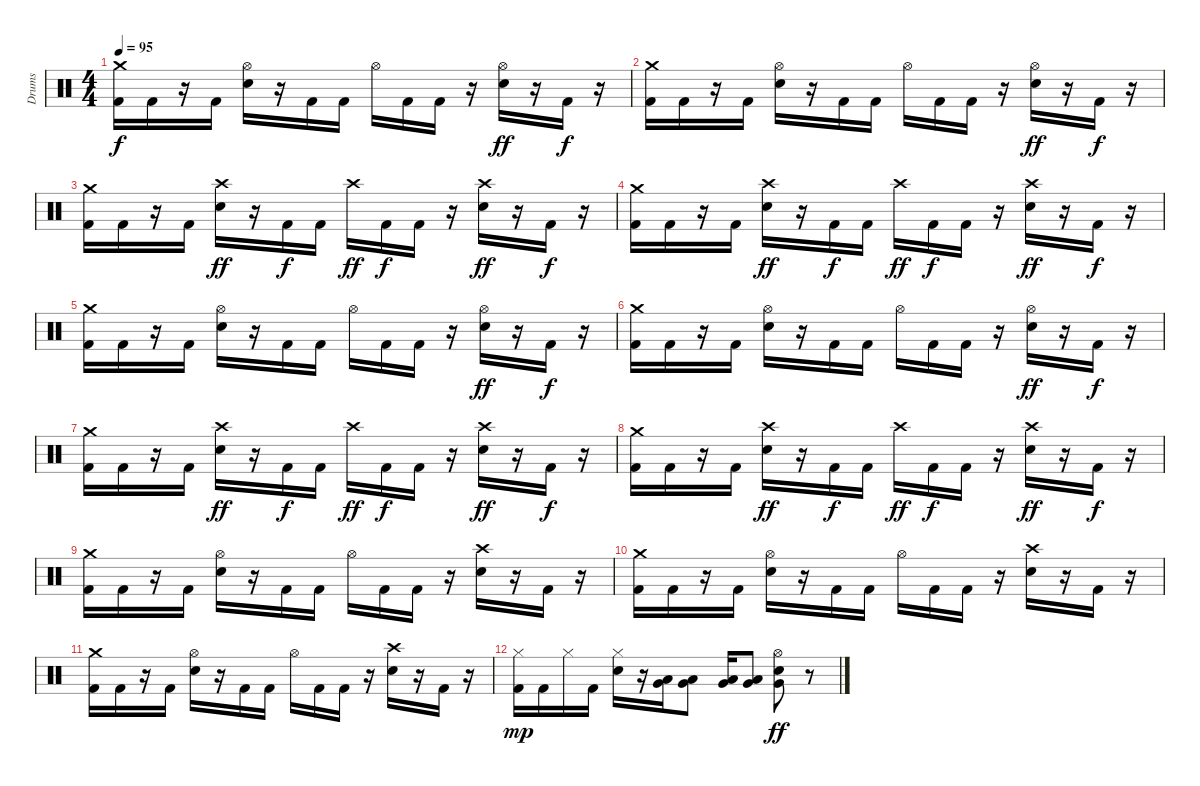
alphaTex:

\track ("Drums" "Drums") {instrument percussion}
\staff {score}
\articulation defaults
\ts (4 4)
\tempo 95
\clef neutral
\ks c
("Crash medium (hit)" "Kick (hit) 2").16{dy f} "Kick (hit) 2".16 r.16 "Kick (hit) 2".16 ("Hi-Hat (open)" "Electric Snare (hit)").16 r.16 "Kick (hit) 2".16 "Kick (hit) 2".16 "Hi-Hat (open)".16 "Kick (hit) 2".16 "Kick (hit) 2".16 r.16 ("Hi-Hat (open)" "Electric Snare (hit)").16{dy ff} r.16 "Kick (hit) 2".16{dy f} r.16 |
("Crash medium (hit)" "Kick (hit) 2").16 "Kick (hit) 2".16 r.16 "Kick (hit) 2".16 ("Hi-Hat (open)" "Electric Snare (hit)").16 r.16 "Kick (hit) 2".16 "Kick (hit) 2".16 "Hi-Hat (open)".16 "Kick (hit) 2".16 "Kick (hit) 2".16 r.16 ("Hi-Hat (open)" "Electric Snare (hit)").16{dy ff} r.16 "Kick (hit) 2".16{dy f} r.16 |
("Crash medium (hit)" "Kick (hit) 2").16 "Kick (hit) 2".16 r.16 "Kick (hit) 2".16 ("Crash high (hit)" "Electric Snare (hit)").16{dy ff} r.16 "Kick (hit) 2".16{dy f} "Kick (hit) 2".16 "Crash high (hit)".16{dy ff} "Kick (hit) 2".16{dy f} "Kick (hit) 2".16 r.16 ("Crash high (hit)" "Electric Snare (hit)").16{dy ff} r.16 "Kick (hit) 2".16{dy f} r.16 |
("Crash medium (hit)" "Kick (hit) 2").16 "Kick (hit) 2".16 r.16 "Kick (hit) 2".16 ("Crash high (hit)" "Electric Snare (hit)").16{dy ff} r.16 "Kick (hit) 2".16{dy f} "Kick (hit) 2".16 "Crash high (hit)".16{dy ff} "Kick (hit) 2".16{dy f} "Kick (hit) 2".16 r.16 ("Crash high (hit)" "Electric Snare (hit)").16{dy ff} r.16 "Kick (hit) 2".16{dy f} r.16 |
("Crash medium (hit)" "Kick (hit) 2").16 "Kick (hit) 2".16 r.16 "Kick (hit) 2".16 ("Hi-Hat (open)" "Electric Snare (hit)").16 r.16 "Kick (hit) 2".16 "Kick (hit) 2".16 "Hi-Hat (open)".16 "Kick (hit) 2".16 "Kick (hit) 2".16 r.16 ("Hi-Hat (open)" "Electric Snare (hit)").16{dy ff} r.16 "Kick (hit) 2".16{dy f} r.16 |
("Crash medium (hit)" "Kick (hit) 2").16 "Kick (hit) 2".16 r.16 "Kick (hit) 2".16 ("Hi-Hat (open)" "Electric Snare (hit)").16 r.16 "Kick (hit) 2".16 "Kick (hit) 2".16 "Hi-Hat (open)".16 "Kick (hit) 2".16 "Kick (hit) 2".16 r.16 ("Hi-Hat (open)" "Electric Snare (hit)").16{dy ff} r.16 "Kick (hit) 2".16{dy f} r.16 |
("Crash medium (hit)" "Kick (hit) 2").16 "Kick (hit) 2".16 r.16 "Kick (hit) 2".16 ("Crash high (hit)" "Electric Snare (hit)").16{dy ff} r.16 "Kick (hit) 2".16{dy f} "Kick (hit) 2".16 "Crash high (hit)".16{dy ff} "Kick (hit) 2".16{dy f} "Kick (hit) 2".16 r.16 ("Crash high (hit)" "Electric Snare (hit)").16{dy ff} r.16 "Kick (hit) 2".16{dy f} r.16 |
("Crash medium (hit)" "Kick (hit) 2").16 "Kick (hit) 2".16 r.16 "Kick (hit) 2".16 ("Crash high (hit)" "Electric Snare (hit)").16{dy ff} r.16 "Kick (hit) 2".16{dy f} "Kick (hit) 2".16 "Crash high (hit)".16{dy ff} "Kick (hit) 2".16{dy f} "Kick (hit) 2".16 r.16 ("Crash high (hit)" "Electric Snare (hit)").16{dy ff} r.16 "Kick (hit) 2".16{dy f} r.16 |
("Crash medium (hit)" "Kick (hit) 2").16 "Kick (hit) 2".16 r.16 "Kick (hit) 2".16 ("Hi-Hat (open)" "Electric Snare (hit)").16 r.16 "Kick (hit) 2".16 "Kick (hit) 2".16 "Hi-Hat (open)".16 "Kick (hit) 2".16 "Kick (hit) 2".16 r.16 ("Crash high (hit)" "Electric Snare (hit)").16 r.16 "Kick (hit) 2".16 r.16 |
("Crash medium (hit)" "Kick (hit) 2").16 "Kick (hit) 2".16 r.16 "Kick (hit) 2".16 ("Hi-Hat (open)" "Electric Snare (hit)").16 r.16 "Kick (hit) 2".16 "Kick (hit) 2".16 "Hi-Hat (open)".16 "Kick (hit) 2".16 "Kick (hit) 2".16 r.16 ("Crash high (hit)" "Electric Snare (hit)").16 r.16 "Kick (hit) 2".16 r.16 |
("Crash medium (hit)" "Kick (hit) 2").16 "Kick (hit) 2".16 r.16 "Kick (hit) 2".16 ("Hi-Hat (open)" "Electric Snare (hit)").16 r.16 "Kick (hit) 2".16 "Kick (hit) 2".16 "Hi-Hat (open)".16 "Kick (hit) 2".16 "Kick (hit) 2".16 r.16 ("Crash high (hit)" "Electric Snare (hit)").16 r.16 "Kick (hit) 2".16 r.16 |
("Hi-Hat (closed)" "Kick (hit) 2").16{dy mp} "Kick (hit) 2".16 "Hi-Hat (closed)".16 "Kick (hit) 2".16 ("Hi-Hat (closed)" "Electric Snare (hit)").16 r.16 ("Low Tom (hit)" "Very Low Tom (hit)").16 ("Low Tom (hit)" "Very Low Tom (hit)").8 ("Low Tom (hit)" "Very Low Tom (hit)").16 ("Low Tom (hit)" "Very Low Tom (hit)").8 ("Hi-Hat (open)" "Very Low Tom (hit)" "Electric Snare (hit)").8{dy ff} r.8
